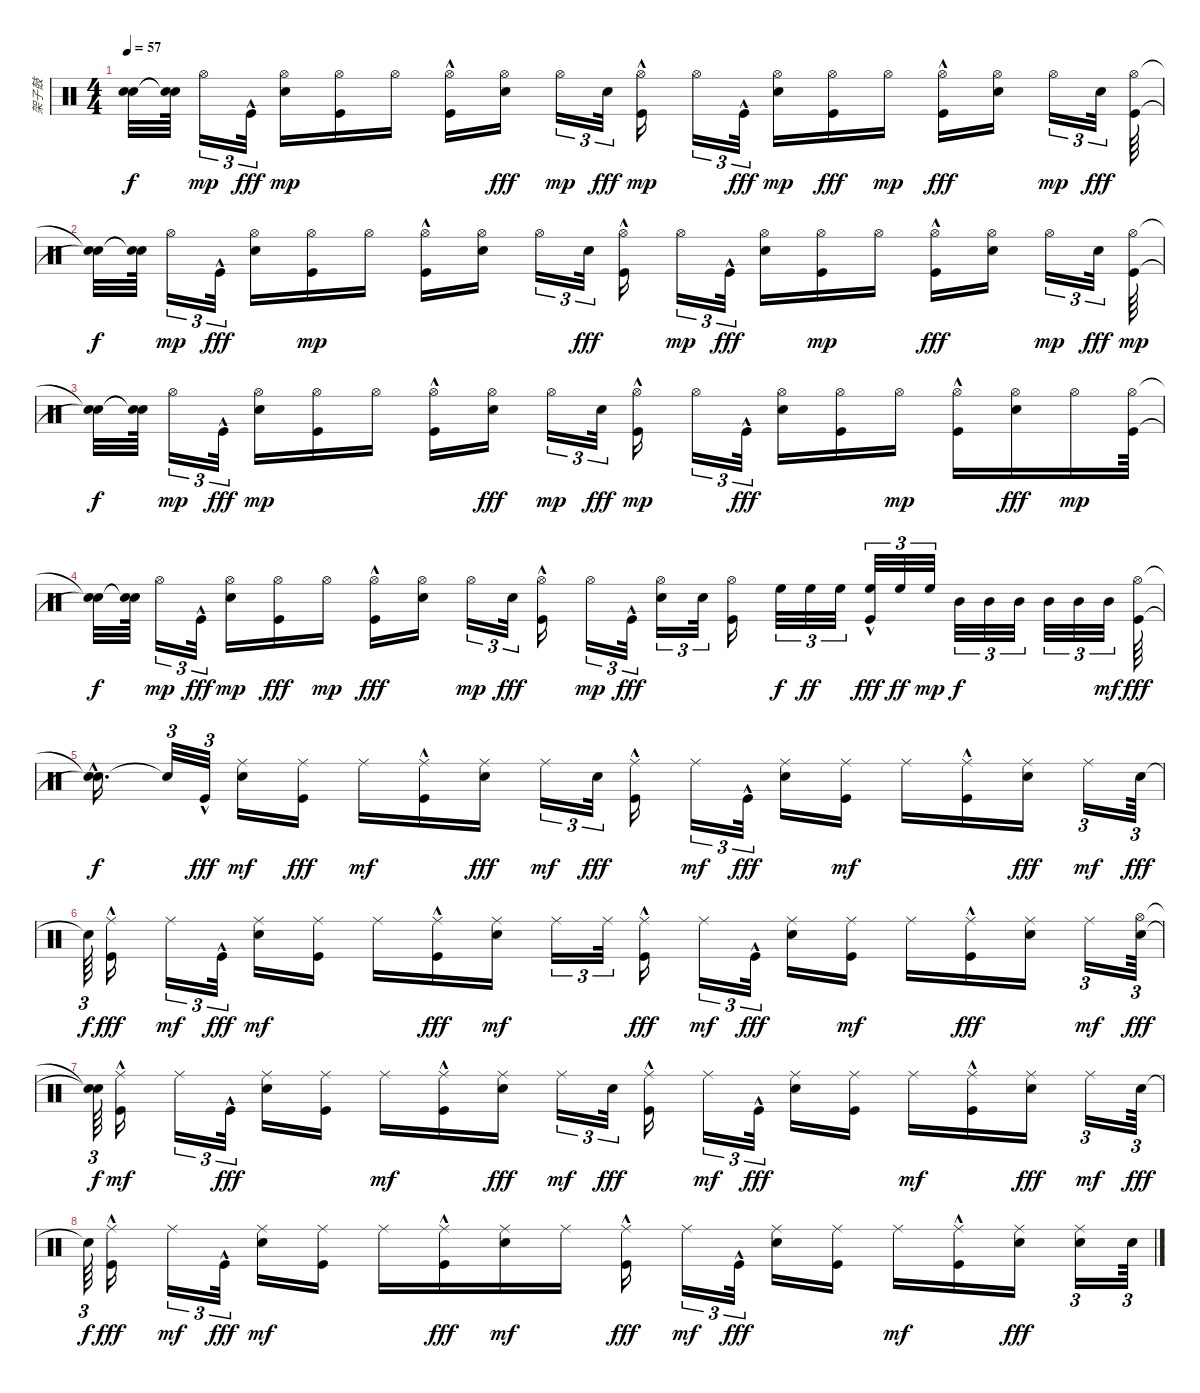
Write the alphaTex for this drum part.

\track ("架子鼓" "架子鼓") {instrument percussion}
\staff {score}
\articulation defaults
\ts (4 4)
\tempo 57
\clef neutral
\ks c
("Snare (hit)"{t} "Snare (hit)"{t}).32{dy f} ("Snare (hit)"{t} "Snare (hit)"{t}).64 "Hi-Hat (open)".16{tu (3 2) dy mp} "Kick (hit)"{hac}.32{tu (3 2) dy fff} ("Electric Snare (hit)" "Hi-Hat (open)").16{dy mp} ("Kick (hit)" "Hi-Hat (open)").16 "Hi-Hat (open)".16 ("Kick (hit)"{hac} "Hi-Hat (open)").16 ("Hi-Hat (open)" "Electric Snare (hit)").16{dy fff} "Hi-Hat (open)".16{tu (3 2) dy mp} "Electric Snare (hit)".32{tu (3 2) dy fff} ("Kick (hit)"{hac} "Hi-Hat (open)").16{dy mp} "Hi-Hat (open)".16{tu (3 2)} "Kick (hit)"{hac}.32{tu (3 2) dy fff} ("Electric Snare (hit)" "Hi-Hat (open)").16{dy mp} ("Hi-Hat (open)" "Kick (hit)").16{dy fff} "Hi-Hat (open)".16{dy mp} ("Hi-Hat (open)" "Kick (hit)"{hac}).16{dy fff} ("Hi-Hat (open)" "Electric Snare (hit)").16 "Hi-Hat (open)".16{tu (3 2) dy mp} "Electric Snare (hit)".32{tu (3 2) dy fff} ("Hi-Hat (open)" "Kick (hit)").64 |
("Snare (hit)"{t} "Snare (hit)"{t}).32{dy f} ("Snare (hit)"{t} "Snare (hit)"{t}).64 "Hi-Hat (open)".16{tu (3 2) dy mp} "Kick (hit)"{hac}.32{tu (3 2) dy fff} ("Hi-Hat (open)" "Electric Snare (hit)").16 ("Kick (hit)" "Hi-Hat (open)").16{dy mp} "Hi-Hat (open)".16 ("Kick (hit)"{hac} "Hi-Hat (open)").16 ("Electric Snare (hit)" "Hi-Hat (open)").16 "Hi-Hat (open)".16{tu (3 2)} "Electric Snare (hit)".32{tu (3 2) dy fff} ("Hi-Hat (open)" "Kick (hit)"{hac}).16 "Hi-Hat (open)".16{tu (3 2) dy mp} "Kick (hit)"{hac}.32{tu (3 2) dy fff} ("Hi-Hat (open)" "Electric Snare (hit)").16 ("Kick (hit)" "Hi-Hat (open)").16{dy mp} "Hi-Hat (open)".16 ("Hi-Hat (open)" "Kick (hit)"{hac}).16{dy fff} ("Hi-Hat (open)" "Electric Snare (hit)").16 "Hi-Hat (open)".16{tu (3 2) dy mp} "Electric Snare (hit)".32{tu (3 2) dy fff} ("Kick (hit)" "Hi-Hat (open)").64{dy mp} |
("Snare (hit)"{t} "Snare (hit)"{t}).32{dy f} ("Snare (hit)"{t} "Snare (hit)"{t}).64 "Hi-Hat (open)".16{tu (3 2) dy mp} "Kick (hit)"{hac}.32{tu (3 2) dy fff} ("Electric Snare (hit)" "Hi-Hat (open)").16{dy mp} ("Kick (hit)" "Hi-Hat (open)").16 "Hi-Hat (open)".16 ("Kick (hit)"{hac} "Hi-Hat (open)").16 ("Hi-Hat (open)" "Electric Snare (hit)").16{dy fff} "Hi-Hat (open)".16{tu (3 2) dy mp} "Electric Snare (hit)".32{tu (3 2) dy fff} ("Kick (hit)"{hac} "Hi-Hat (open)").16{dy mp} "Hi-Hat (open)".16{tu (3 2)} "Kick (hit)"{hac}.32{tu (3 2) dy fff} ("Hi-Hat (open)" "Electric Snare (hit)").16 ("Hi-Hat (open)" "Kick (hit)").16 "Hi-Hat (open)".16{dy mp} ("Kick (hit)"{hac} "Hi-Hat (open)").16 ("Hi-Hat (open)" "Electric Snare (hit)").16{dy fff} "Hi-Hat (open)".16{dy mp} ("Kick (hit)" "Hi-Hat (open)").64 |
("Snare (hit)"{t} "Snare (hit)"{t}).32{dy f} ("Snare (hit)"{t} "Snare (hit)"{t}).64 "Hi-Hat (open)".16{tu (3 2) dy mp} "Kick (hit)"{hac}.32{tu (3 2) dy fff} ("Electric Snare (hit)" "Hi-Hat (open)").16{dy mp} ("Hi-Hat (open)" "Kick (hit)").16{dy fff} "Hi-Hat (open)".16{dy mp} ("Hi-Hat (open)" "Kick (hit)"{hac}).16{dy fff} ("Hi-Hat (open)" "Electric Snare (hit)").16 "Hi-Hat (open)".16{tu (3 2) dy mp} "Electric Snare (hit)".32{tu (3 2) dy fff} ("Hi-Hat (open)" "Kick (hit)"{hac}).16 "Hi-Hat (open)".16{tu (3 2) dy mp} "Kick (hit)"{hac}.32{tu (3 2) dy fff} ("Hi-Hat (open)" "Electric Snare (hit)").16{tu (3 2)} "Electric Snare (hit)".32{tu (3 2)} ("Hi-Hat (open)" "Kick (hit)").16 "High Floor Tom (hit)".32{tu (3 2) dy f} "High Floor Tom (hit)".32{tu (3 2) dy ff} "High Floor Tom (hit)".32{tu (3 2)} ("High Floor Tom (hit)" "Kick (hit)"{hac}).32{tu (3 2) dy fff} "High Floor Tom (hit)".32{tu (3 2) dy ff} "High Floor Tom (hit)".32{tu (3 2) dy mp} "Mid Tom (hit)".32{tu (3 2) dy f} "Mid Tom (hit)".32{tu (3 2)} "Mid Tom (hit)".32{tu (3 2)} "Mid Tom (hit)".32{tu (3 2)} "Mid Tom (hit)".32{tu (3 2)} "Mid Tom (hit)".32{tu (3 2) dy mf} ("Kick (hit)" "Hi-Hat (open)").64{dy fff} |
("Snare (hit)"{t} "Snare (hit)"{hac t}).16{d dy f} "Snare (hit)"{t}.32{tu (3 2)} "Kick (hit)"{hac}.32{tu (3 2) dy fff} ("Electric Snare (hit)" "Ride (middle)").16{dy mf} ("Ride (middle)" "Kick (hit)").16{dy fff} "Ride (middle)".16{dy mf} ("Kick (hit)"{hac} "Ride (middle)").16 ("Ride (middle)" "Electric Snare (hit)").16{dy fff} "Ride (middle)".16{tu (3 2) dy mf} "Electric Snare (hit)".32{tu (3 2) dy fff} ("Ride (middle)" "Kick (hit)"{hac}).16 "Ride (middle)".16{tu (3 2) dy mf} "Kick (hit)"{hac}.32{tu (3 2) dy fff} ("Ride (middle)" "Electric Snare (hit)").16 ("Kick (hit)" "Ride (middle)").16{dy mf} "Ride (middle)".16 ("Kick (hit)"{hac} "Ride (middle)").16 ("Ride (middle)" "Electric Snare (hit)").16{dy fff} "Ride (middle)".16{tu (3 2) dy mf} "Electric Snare (hit)".64{tu (3 2) dy fff} |
"Snare (hit)"{t}.64{tu (3 2) dy f} ("Ride (middle)" "Kick (hit)"{hac}).16{dy fff} "Ride (middle)".16{tu (3 2) dy mf} "Kick (hit)"{hac}.32{tu (3 2) dy fff} ("Electric Snare (hit)" "Ride (middle)").16{dy mf} ("Kick (hit)" "Ride (middle)").16 "Ride (middle)".16 ("Ride (middle)" "Kick (hit)"{hac}).16{dy fff} ("Electric Snare (hit)" "Ride (middle)").16{dy mf} "Ride (middle)".16{tu (3 2)} "Ride (middle)".32{tu (3 2)} ("Ride (middle)" "Kick (hit)"{hac}).16{dy fff} "Ride (middle)".16{tu (3 2) dy mf} "Kick (hit)"{hac}.32{tu (3 2) dy fff} ("Ride (middle)" "Electric Snare (hit)").16 ("Kick (hit)" "Ride (middle)").16{dy mf} "Ride (middle)".16 ("Ride (middle)" "Kick (hit)"{hac}).16{dy fff} ("Ride (middle)" "Electric Snare (hit)").16 "Ride (middle)".16{tu (3 2) dy mf} ("Hi-Hat (open)" "Electric Snare (hit)").64{tu (3 2) dy fff} |
("Snare (hit)"{t} "Snare (hit)"{t}).64{tu (3 2) dy f} ("Kick (hit)"{hac} "Ride (middle)").16{dy mf} "Ride (middle)".16{tu (3 2)} "Kick (hit)"{hac}.32{tu (3 2) dy fff} ("Ride (middle)" "Electric Snare (hit)").16 ("Ride (middle)" "Kick (hit)").16 "Ride (middle)".16{dy mf} ("Kick (hit)"{hac} "Ride (middle)").16 ("Ride (middle)" "Electric Snare (hit)").16{dy fff} "Ride (middle)".16{tu (3 2) dy mf} "Electric Snare (hit)".32{tu (3 2) dy fff} ("Ride (middle)" "Kick (hit)"{hac}).16 "Ride (middle)".16{tu (3 2) dy mf} "Kick (hit)"{hac}.32{tu (3 2) dy fff} ("Ride (middle)" "Electric Snare (hit)").16 ("Ride (middle)" "Kick (hit)").16 "Ride (middle)".16{dy mf} ("Kick (hit)"{hac} "Ride (middle)").16 ("Ride (middle)" "Electric Snare (hit)").16{dy fff} "Ride (middle)".16{tu (3 2) dy mf} "Electric Snare (hit)".64{tu (3 2) dy fff} |
"Snare (hit)"{t}.64{tu (3 2) dy f} ("Ride (middle)" "Kick (hit)"{hac}).16{dy fff} "Ride (middle)".16{tu (3 2) dy mf} "Kick (hit)"{hac}.32{tu (3 2) dy fff} ("Electric Snare (hit)" "Ride (middle)").16{dy mf} ("Kick (hit)" "Ride (middle)").16 "Ride (middle)".16 ("Ride (middle)" "Kick (hit)"{hac}).16{dy fff} ("Electric Snare (hit)" "Ride (middle)").16{dy mf} "Ride (middle)".16 ("Ride (middle)" "Kick (hit)"{hac}).16{dy fff} "Ride (middle)".16{tu (3 2) dy mf} "Kick (hit)"{hac}.32{tu (3 2) dy fff} ("Ride (middle)" "Electric Snare (hit)").16 ("Ride (middle)" "Kick (hit)").16 "Ride (middle)".16{dy mf} ("Kick (hit)"{hac} "Ride (middle)").16 ("Ride (middle)" "Electric Snare (hit)").16{dy fff} ("Ride (middle)" "Electric Snare (hit)").16{tu (3 2)} "Electric Snare (hit)".64{tu (3 2)}
